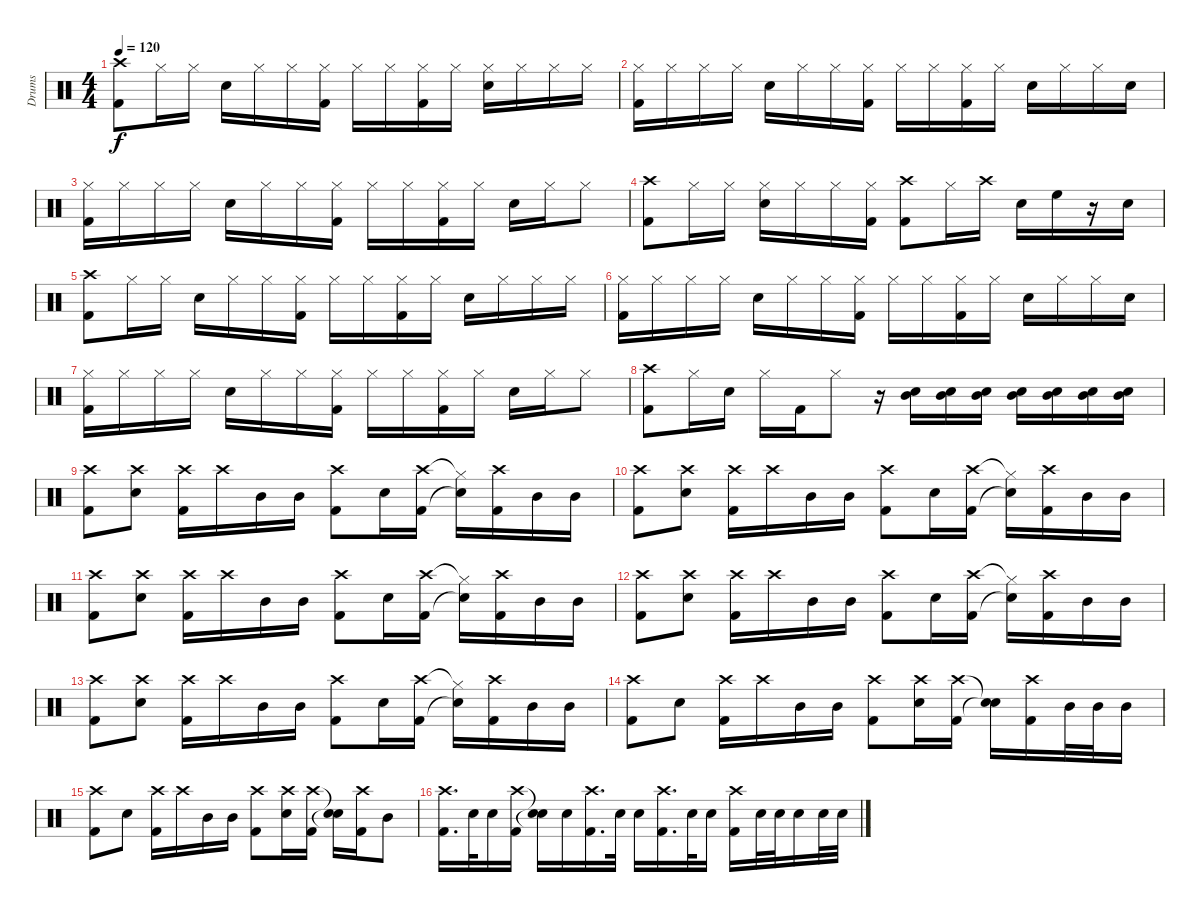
\track ("Drums" "Drums") {instrument percussion}
\staff {score}
\articulation defaults
\ts (4 4)
\tempo 120
\clef neutral
\ks c
("Crash high (hit)" "Kick (hit) 2").8{dy f} "Hi-Hat (closed)".16 "Hi-Hat (closed)".16 "Snare (hit) 2".16 "Hi-Hat (closed)".16 "Hi-Hat (closed)".16 ("Hi-Hat (closed)" "Kick (hit) 2").16 "Hi-Hat (closed)".16 "Hi-Hat (closed)".16 ("Hi-Hat (closed)" "Kick (hit) 2").16 "Hi-Hat (closed)".16 ("Hi-Hat (closed)" "Snare (hit) 2").16 "Hi-Hat (closed)".16 "Hi-Hat (closed)".16 "Hi-Hat (closed)".16 |
("Hi-Hat (closed)" "Kick (hit) 2").16 "Hi-Hat (closed)".16 "Hi-Hat (closed)".16 "Hi-Hat (closed)".16 "Snare (hit) 2".16 "Hi-Hat (closed)".16 "Hi-Hat (closed)".16 ("Hi-Hat (closed)" "Kick (hit) 2").16 "Hi-Hat (closed)".16 "Hi-Hat (closed)".16 ("Hi-Hat (closed)" "Kick (hit) 2").16 "Hi-Hat (closed)".16 "Snare (hit) 2".16 "Hi-Hat (closed)".16 "Hi-Hat (closed)".16 "Snare (hit) 2".16 |
("Hi-Hat (closed)" "Kick (hit) 2").16 "Hi-Hat (closed)".16 "Hi-Hat (closed)".16 "Hi-Hat (closed)".16 "Snare (hit) 2".16 "Hi-Hat (closed)".16 "Hi-Hat (closed)".16 ("Hi-Hat (closed)" "Kick (hit) 2").16 "Hi-Hat (closed)".16 "Hi-Hat (closed)".16 ("Hi-Hat (closed)" "Kick (hit) 2").16 "Hi-Hat (closed)".16 "Snare (hit) 2".16 "Hi-Hat (closed)".16 "Hi-Hat (closed)".8 |
("Crash high (hit)" "Kick (hit) 2").8 "Hi-Hat (closed)".16 "Hi-Hat (closed)".16 ("Hi-Hat (closed)" "Snare (hit) 2").16 "Hi-Hat (closed)".16 "Hi-Hat (closed)".16 ("Hi-Hat (closed)" "Kick (hit) 2").16 ("Crash high (hit)" "Kick (hit) 2").8 "Hi-Hat (closed)".16 "Crash high (hit)".16 "Snare (hit) 2".16 "High Floor Tom (hit)".16 r.16 "Snare (hit) 2".16 |
("Crash high (hit)" "Kick (hit) 2").8 "Hi-Hat (closed)".16 "Hi-Hat (closed)".16 "Snare (hit) 2".16 "Hi-Hat (closed)".16 "Hi-Hat (closed)".16 ("Hi-Hat (closed)" "Kick (hit) 2").16 "Hi-Hat (closed)".16 "Hi-Hat (closed)".16 ("Hi-Hat (closed)" "Kick (hit) 2").16 "Hi-Hat (closed)".16 "Snare (hit) 2".16 "Hi-Hat (closed)".16 "Hi-Hat (closed)".16 "Hi-Hat (closed)".16 |
("Hi-Hat (closed)" "Kick (hit) 2").16 "Hi-Hat (closed)".16 "Hi-Hat (closed)".16 "Hi-Hat (closed)".16 "Snare (hit) 2".16 "Hi-Hat (closed)".16 "Hi-Hat (closed)".16 ("Hi-Hat (closed)" "Kick (hit) 2").16 "Hi-Hat (closed)".16 "Hi-Hat (closed)".16 ("Hi-Hat (closed)" "Kick (hit) 2").16 "Hi-Hat (closed)".16 "Snare (hit) 2".16 "Hi-Hat (closed)".16 "Hi-Hat (closed)".16 "Snare (hit) 2".16 |
("Hi-Hat (closed)" "Kick (hit) 2").16 "Hi-Hat (closed)".16 "Hi-Hat (closed)".16 "Hi-Hat (closed)".16 "Snare (hit) 2".16 "Hi-Hat (closed)".16 "Hi-Hat (closed)".16 ("Hi-Hat (closed)" "Kick (hit) 2").16 "Hi-Hat (closed)".16 "Hi-Hat (closed)".16 ("Hi-Hat (closed)" "Kick (hit) 2").16 "Hi-Hat (closed)".16 "Snare (hit) 2".16 "Hi-Hat (closed)".16 "Hi-Hat (closed)".8 |
("Crash high (hit)" "Kick (hit) 2").8 "Hi-Hat (closed)".16 "Snare (hit) 2".16 "Hi-Hat (closed)".16 "Kick (hit) 2".16 "Hi-Hat (closed)".8 r.16 ("Snare (hit) 2" "Mid Tom (hit)").16 ("Snare (hit) 2" "Mid Tom (hit)").16 ("Snare (hit) 2" "Mid Tom (hit)").16 ("Snare (hit) 2" "Mid Tom (hit)").16 ("Snare (hit) 2" "Mid Tom (hit)").16 ("Snare (hit) 2" "Mid Tom (hit)").16 ("Snare (hit) 2" "Mid Tom (hit)").16 |
("Crash high (hit)" "Kick (hit) 2").8 ("Crash high (hit)" "Snare (hit) 2").8 ("Crash high (hit)" "Kick (hit) 2").16 "Crash high (hit)".16 "Mid Tom (hit)".16 "Mid Tom (hit)".16 ("Crash high (hit)" "Kick (hit) 2").8 "Snare (hit) 2".16 ("Crash high (hit)" "Kick (hit) 2").16 ("Hi-Hat (closed)"{t} "Snare (hit)"{t}).16 ("Crash high (hit)" "Kick (hit) 2").16 "Mid Tom (hit)".16 "Mid Tom (hit)".16 |
("Crash high (hit)" "Kick (hit) 2").8 ("Crash high (hit)" "Snare (hit) 2").8 ("Crash high (hit)" "Kick (hit) 2").16 "Crash high (hit)".16 "Mid Tom (hit)".16 "Mid Tom (hit)".16 ("Crash high (hit)" "Kick (hit) 2").8 "Snare (hit) 2".16 ("Crash high (hit)" "Kick (hit) 2").16 ("Hi-Hat (closed)"{t} "Snare (hit)"{t}).16 ("Crash high (hit)" "Kick (hit) 2").16 "Mid Tom (hit)".16 "Mid Tom (hit)".16 |
("Crash high (hit)" "Kick (hit) 2").8 ("Crash high (hit)" "Snare (hit) 2").8 ("Crash high (hit)" "Kick (hit) 2").16 "Crash high (hit)".16 "Mid Tom (hit)".16 "Mid Tom (hit)".16 ("Crash high (hit)" "Kick (hit) 2").8 "Snare (hit) 2".16 ("Crash high (hit)" "Kick (hit) 2").16 ("Hi-Hat (closed)"{t} "Snare (hit)"{t}).16 ("Crash high (hit)" "Kick (hit) 2").16 "Mid Tom (hit)".16 "Mid Tom (hit)".16 |
("Crash high (hit)" "Kick (hit) 2").8 ("Crash high (hit)" "Snare (hit) 2").8 ("Crash high (hit)" "Kick (hit) 2").16 "Crash high (hit)".16 "Mid Tom (hit)".16 "Mid Tom (hit)".16 ("Crash high (hit)" "Kick (hit) 2").8 "Snare (hit) 2".16 ("Crash high (hit)" "Kick (hit) 2").16 ("Hi-Hat (closed)"{t} "Snare (hit)"{t}).16 ("Crash high (hit)" "Kick (hit) 2").16 "Mid Tom (hit)".16 "Mid Tom (hit)".16 |
("Crash high (hit)" "Kick (hit) 2").8 ("Crash high (hit)" "Snare (hit) 2").8 ("Crash high (hit)" "Kick (hit) 2").16 "Crash high (hit)".16 "Mid Tom (hit)".16 "Mid Tom (hit)".16 ("Crash high (hit)" "Kick (hit) 2").8 "Snare (hit) 2".16 ("Crash high (hit)" "Kick (hit) 2").16 ("Hi-Hat (closed)"{t} "Snare (hit)"{t}).16 ("Crash high (hit)" "Kick (hit) 2").16 "Mid Tom (hit)".16 "Mid Tom (hit)".16 |
("Crash high (hit)" "Kick (hit) 2").8 "Snare (hit) 2".8 ("Crash high (hit)" "Kick (hit) 2").16 "Crash high (hit)".16 "Mid Tom (hit)".16 "Mid Tom (hit)".16 ("Crash high (hit)" "Kick (hit) 2").8 ("Crash high (hit)" "Snare (hit) 2").16 ("Crash high (hit)" "Kick (hit) 2").16 ("Snare (hit)"{t} "Snare (hit)"{t}).16 ("Crash high (hit)" "Kick (hit) 2").16 "Mid Tom (hit)".32 "Mid Tom (hit)".32 "Mid Tom (hit)".16 |
("Crash high (hit)" "Kick (hit) 2").8 "Snare (hit) 2".8 ("Crash high (hit)" "Kick (hit) 2").16 "Crash high (hit)".16 "Mid Tom (hit)".16 "Mid Tom (hit)".16 ("Crash high (hit)" "Kick (hit) 2").8 ("Crash high (hit)" "Snare (hit) 2").16 ("Crash high (hit)" "Kick (hit) 2").16 ("Snare (hit)"{t} "Snare (hit)"{t}).16 ("Crash high (hit)" "Kick (hit) 2").16 "Mid Tom (hit)".8 |
("Crash high (hit)" "Kick (hit) 2").16{d} "Snare (hit) 2".32 "Snare (hit) 2".16 ("Crash high (hit)" "Kick (hit) 2").16 ("Snare (hit)"{t} "Snare (hit)"{t}).16 "Snare (hit) 2".16 ("Crash high (hit)" "Kick (hit) 2").16{d} "Snare (hit) 2".32 "Snare (hit) 2".16 ("Crash high (hit)" "Kick (hit) 2").16{d} "Snare (hit) 2".32 "Snare (hit) 2".16 ("Crash high (hit)" "Kick (hit) 2").16 "Snare (hit) 2".32 "Snare (hit) 2".32 "Snare (hit) 2".16 "Snare (hit) 2".32 "Snare (hit) 2".32
